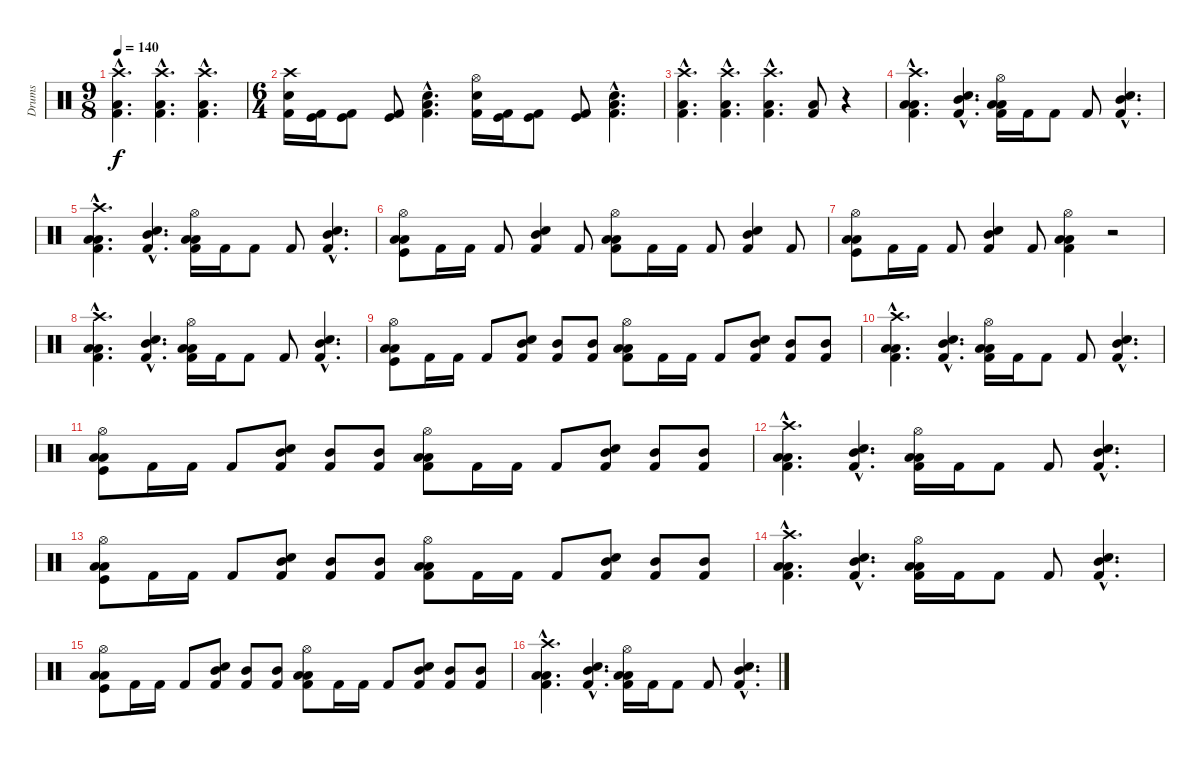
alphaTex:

\track ("Drums" "Drums") {instrument percussion}
\staff {score}
\articulation defaults
\ts (9 8)
\tempo 140
\clef neutral
\ks c
("Crash high (hit)"{hac} "Low Tom (hit)"{hac} "Kick (hit) 2"{hac}).4{d dy f} ("Crash high (hit)"{hac} "Low Tom (hit)"{hac} "Kick (hit) 2"{hac}).4{d} ("Crash high (hit)"{hac} "Low Tom (hit)"{hac} "Kick (hit) 2"{hac}).4{d} |
\ts (6 4)
("Crash high (hit)" "Snare (hit) 2" "Kick (hit) 2").16 ("Kick (hit)" "Kick (hit) 2").16 ("Kick (hit)" "Kick (hit) 2").8 ("Kick (hit)" "Kick (hit) 2").8 ("Low Tom (hit)"{hac} "Electric Snare (hit)"{hac} "Kick (hit) 2"{hac}).4{d} ("Hi-Hat (open)" "Snare (hit) 2" "Kick (hit) 2").16 ("Kick (hit)" "Kick (hit) 2").16 ("Kick (hit)" "Kick (hit) 2").8 ("Kick (hit)" "Kick (hit) 2").8 ("Low Tom (hit)"{hac} "Electric Snare (hit)"{hac} "Kick (hit) 2"{hac}).4{d} |
("Crash high (hit)"{hac} "Low Tom (hit)"{hac} "Kick (hit) 2"{hac}).4{d} ("Crash high (hit)"{hac} "Low Tom (hit)"{hac} "Kick (hit) 2"{hac}).4{d} ("Crash high (hit)"{hac} "Low Tom (hit)"{hac} "Kick (hit) 2"{hac}).4{d} ("Low Tom (hit)" "Kick (hit) 2").8 r.4 |
("Crash high (hit)"{hac} "Low Tom (hit)"{hac} "Low Tom (hit)"{hac} "Kick (hit) 2"{hac}).4{d} ("Snare (hit) 2"{hac} "Mid Tom (hit)"{hac} "Kick (hit) 2"{hac}).4{d} ("Hi-Hat (open)" "Low Tom (hit)" "Low Tom (hit)" "Kick (hit) 2").16 "Kick (hit) 2".16 "Kick (hit) 2".8 "Kick (hit) 2".8 ("Snare (hit) 2"{hac} "Mid Tom (hit)"{hac} "Kick (hit) 2"{hac}).4{d} |
("Crash high (hit)"{hac} "Low Tom (hit)"{hac} "Low Tom (hit)"{hac} "Kick (hit) 2"{hac}).4{d} ("Snare (hit) 2"{hac} "Mid Tom (hit)"{hac} "Kick (hit) 2"{hac}).4{d} ("Hi-Hat (open)" "Low Tom (hit)" "Low Tom (hit)" "Kick (hit) 2").16 "Kick (hit) 2".16 "Kick (hit) 2".8 "Kick (hit) 2".8 ("Snare (hit) 2"{hac} "Mid Tom (hit)"{hac} "Kick (hit) 2"{hac}).4{d} |
("Hi-Hat (open)" "Low Tom (hit)" "Low Tom (hit)" "Kick (hit)").8 "Kick (hit) 2".16 "Kick (hit) 2".16 "Kick (hit) 2".8 ("Snare (hit) 2" "Mid Tom (hit)" "Kick (hit) 2").4 "Kick (hit) 2".8 ("Hi-Hat (open)" "Low Tom (hit)" "Low Tom (hit)" "Kick (hit) 2").8 "Kick (hit) 2".16 "Kick (hit) 2".16 "Kick (hit) 2".8 ("Snare (hit) 2" "Mid Tom (hit)" "Kick (hit) 2").4 "Kick (hit) 2".8 |
("Hi-Hat (open)" "Low Tom (hit)" "Low Tom (hit)" "Kick (hit)").8 "Kick (hit) 2".16 "Kick (hit) 2".16 "Kick (hit) 2".8 ("Snare (hit) 2" "Mid Tom (hit)" "Kick (hit) 2").4 "Kick (hit) 2".8 ("Hi-Hat (open)" "Low Tom (hit)" "Low Tom (hit)" "Kick (hit) 2").4 r.2 |
("Crash high (hit)"{hac} "Low Tom (hit)"{hac} "Low Tom (hit)"{hac} "Kick (hit) 2"{hac}).4{d} ("Snare (hit) 2"{hac} "Mid Tom (hit)"{hac} "Kick (hit) 2"{hac}).4{d} ("Hi-Hat (open)" "Low Tom (hit)" "Low Tom (hit)" "Kick (hit) 2").16 "Kick (hit) 2".16 "Kick (hit) 2".8 "Kick (hit) 2".8 ("Snare (hit) 2"{hac} "Mid Tom (hit)"{hac} "Kick (hit) 2"{hac}).4{d} |
("Hi-Hat (open)" "Low Tom (hit)" "Low Tom (hit)" "Kick (hit)").8 "Kick (hit) 2".16 "Kick (hit) 2".16 "Kick (hit) 2".8 ("Snare (hit) 2" "Mid Tom (hit)" "Kick (hit) 2").8 ("Mid Tom (hit)" "Kick (hit) 2").8 ("Mid Tom (hit)" "Kick (hit) 2").8 ("Hi-Hat (open)" "Low Tom (hit)" "Low Tom (hit)" "Kick (hit) 2").8 "Kick (hit) 2".16 "Kick (hit) 2".16 "Kick (hit) 2".8 ("Snare (hit) 2" "Mid Tom (hit)" "Kick (hit) 2").8 ("Mid Tom (hit)" "Kick (hit) 2").8 ("Mid Tom (hit)" "Kick (hit) 2").8 |
("Crash high (hit)"{hac} "Low Tom (hit)"{hac} "Low Tom (hit)"{hac} "Kick (hit) 2"{hac}).4{d} ("Snare (hit) 2"{hac} "Mid Tom (hit)"{hac} "Kick (hit) 2"{hac}).4{d} ("Hi-Hat (open)" "Low Tom (hit)" "Low Tom (hit)" "Kick (hit) 2").16 "Kick (hit) 2".16 "Kick (hit) 2".8 "Kick (hit) 2".8 ("Snare (hit) 2"{hac} "Mid Tom (hit)"{hac} "Kick (hit) 2"{hac}).4{d} |
("Hi-Hat (open)" "Low Tom (hit)" "Low Tom (hit)" "Kick (hit)").8 "Kick (hit) 2".16 "Kick (hit) 2".16 "Kick (hit) 2".8 ("Snare (hit) 2" "Mid Tom (hit)" "Kick (hit) 2").8 ("Mid Tom (hit)" "Kick (hit) 2").8 ("Mid Tom (hit)" "Kick (hit) 2").8 ("Hi-Hat (open)" "Low Tom (hit)" "Low Tom (hit)" "Kick (hit) 2").8 "Kick (hit) 2".16 "Kick (hit) 2".16 "Kick (hit) 2".8 ("Snare (hit) 2" "Mid Tom (hit)" "Kick (hit) 2").8 ("Mid Tom (hit)" "Kick (hit) 2").8 ("Mid Tom (hit)" "Kick (hit) 2").8 |
("Crash high (hit)"{hac} "Low Tom (hit)"{hac} "Low Tom (hit)"{hac} "Kick (hit) 2"{hac}).4{d} ("Snare (hit) 2"{hac} "Mid Tom (hit)"{hac} "Kick (hit) 2"{hac}).4{d} ("Hi-Hat (open)" "Low Tom (hit)" "Low Tom (hit)" "Kick (hit) 2").16 "Kick (hit) 2".16 "Kick (hit) 2".8 "Kick (hit) 2".8 ("Snare (hit) 2"{hac} "Mid Tom (hit)"{hac} "Kick (hit) 2"{hac}).4{d} |
("Hi-Hat (open)" "Low Tom (hit)" "Low Tom (hit)" "Kick (hit)").8 "Kick (hit) 2".16 "Kick (hit) 2".16 "Kick (hit) 2".8 ("Snare (hit) 2" "Mid Tom (hit)" "Kick (hit) 2").8 ("Mid Tom (hit)" "Kick (hit) 2").8 ("Mid Tom (hit)" "Kick (hit) 2").8 ("Hi-Hat (open)" "Low Tom (hit)" "Low Tom (hit)" "Kick (hit) 2").8 "Kick (hit) 2".16 "Kick (hit) 2".16 "Kick (hit) 2".8 ("Snare (hit) 2" "Mid Tom (hit)" "Kick (hit) 2").8 ("Mid Tom (hit)" "Kick (hit) 2").8 ("Mid Tom (hit)" "Kick (hit) 2").8 |
("Crash high (hit)"{hac} "Low Tom (hit)"{hac} "Low Tom (hit)"{hac} "Kick (hit) 2"{hac}).4{d} ("Snare (hit) 2"{hac} "Mid Tom (hit)"{hac} "Kick (hit) 2"{hac}).4{d} ("Hi-Hat (open)" "Low Tom (hit)" "Low Tom (hit)" "Kick (hit) 2").16 "Kick (hit) 2".16 "Kick (hit) 2".8 "Kick (hit) 2".8 ("Snare (hit) 2"{hac} "Mid Tom (hit)"{hac} "Kick (hit) 2"{hac}).4{d} |
("Hi-Hat (open)" "Low Tom (hit)" "Low Tom (hit)" "Kick (hit)").8 "Kick (hit) 2".16 "Kick (hit) 2".16 "Kick (hit) 2".8 ("Snare (hit) 2" "Mid Tom (hit)" "Kick (hit) 2").8 ("Mid Tom (hit)" "Kick (hit) 2").8 ("Mid Tom (hit)" "Kick (hit) 2").8 ("Hi-Hat (open)" "Low Tom (hit)" "Low Tom (hit)" "Kick (hit) 2").8 "Kick (hit) 2".16 "Kick (hit) 2".16 "Kick (hit) 2".8 ("Snare (hit) 2" "Mid Tom (hit)" "Kick (hit) 2").8 ("Mid Tom (hit)" "Kick (hit) 2").8 ("Mid Tom (hit)" "Kick (hit) 2").8 |
("Crash high (hit)"{hac} "Low Tom (hit)"{hac} "Low Tom (hit)"{hac} "Kick (hit) 2"{hac}).4{d} ("Snare (hit) 2"{hac} "Mid Tom (hit)"{hac} "Kick (hit) 2"{hac}).4{d} ("Hi-Hat (open)" "Low Tom (hit)" "Low Tom (hit)" "Kick (hit) 2").16 "Kick (hit) 2".16 "Kick (hit) 2".8 "Kick (hit) 2".8 ("Snare (hit) 2"{hac} "Mid Tom (hit)"{hac} "Kick (hit) 2"{hac}).4{d}
